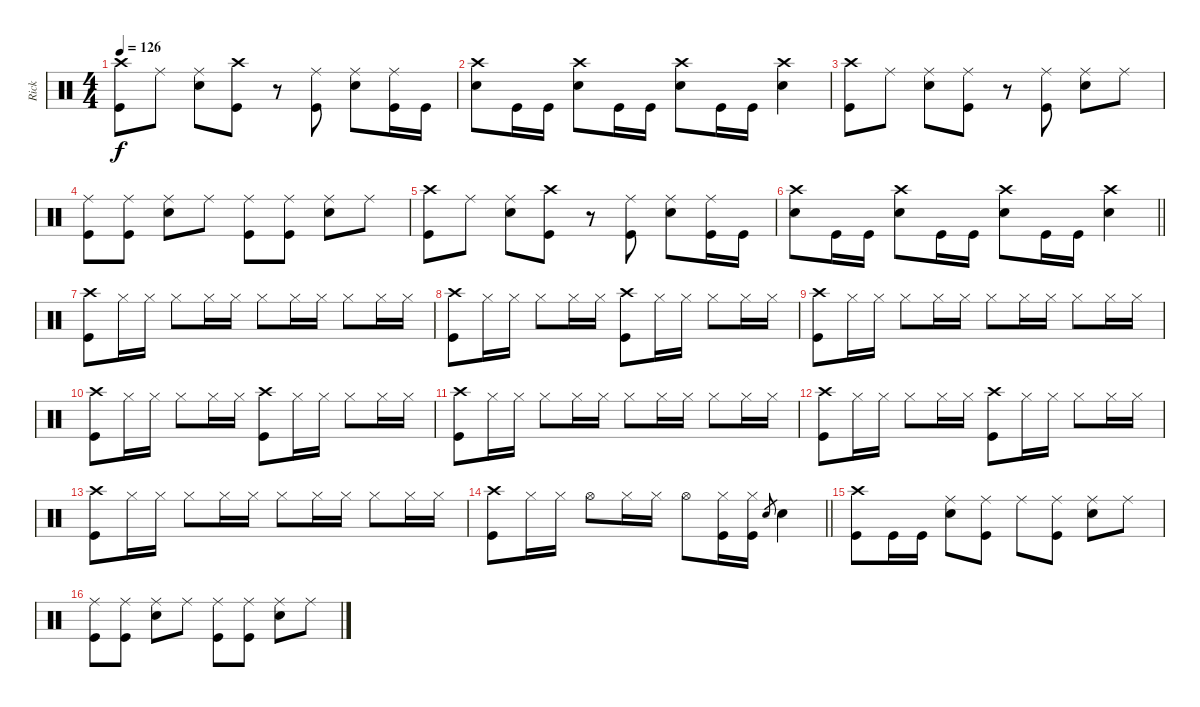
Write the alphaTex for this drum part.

\track ("Rick" "Rick") {instrument percussion}
\staff {score}
\articulation defaults
\ts (4 4)
\tempo 126
\clef neutral
\ks aminor
("Crash high (hit)" "Kick (hit)").8{dy f} "Ride (middle)".8 ("Ride (middle)" "Snare (hit) 2").8 ("Crash high (hit)" "Kick (hit)").8 r.8 ("Ride (middle)" "Kick (hit)").8 ("Ride (middle)" "Snare (hit) 2").8 ("Ride (middle)" "Kick (hit)").16 "Kick (hit)".16 |
("Crash high (hit)" "Snare (hit) 2").8 "Kick (hit)".16 "Kick (hit)".16 ("Crash high (hit)" "Snare (hit) 2").8 "Kick (hit)".16 "Kick (hit)".16 ("Crash high (hit)" "Snare (hit) 2").8 "Kick (hit)".16 "Kick (hit)".16 ("Crash high (hit)" "Snare (hit) 2").4 |
("Crash high (hit)" "Kick (hit)").8 "Ride (middle)".8 ("Ride (middle)" "Snare (hit) 2").8 ("Ride (middle)" "Kick (hit)").8 r.8 ("Ride (middle)" "Kick (hit)").8 ("Ride (middle)" "Snare (hit) 2").8 "Ride (middle)".8 |
("Ride (middle)" "Kick (hit)").8 ("Ride (middle)" "Kick (hit)").8 ("Ride (middle)" "Snare (hit) 2").8 "Ride (middle)".8 ("Ride (middle)" "Kick (hit)").8 ("Ride (middle)" "Kick (hit)").8 ("Ride (middle)" "Snare (hit) 2").8 "Ride (middle)".8 |
("Crash high (hit)" "Kick (hit)").8 "Ride (middle)".8 ("Ride (middle)" "Snare (hit) 2").8 ("Crash high (hit)" "Kick (hit)").8 r.8 ("Ride (middle)" "Kick (hit)").8 ("Ride (middle)" "Snare (hit) 2").8 ("Ride (middle)" "Kick (hit)").16 "Kick (hit)".16 |
\barLineRight lightlight
("Crash high (hit)" "Snare (hit) 2").8 "Kick (hit)".16 "Kick (hit)".16 ("Crash high (hit)" "Snare (hit) 2").8 "Kick (hit)".16 "Kick (hit)".16 ("Crash high (hit)" "Snare (hit) 2").8 "Kick (hit)".16 "Kick (hit)".16 ("Crash high (hit)" "Snare (hit) 2").4 |
("Crash high (hit)" "Kick (hit)").8 "Hi-Hat (closed)".16 "Hi-Hat (closed)".16 "Hi-Hat (closed)".8 "Hi-Hat (closed)".16 "Hi-Hat (closed)".16 "Hi-Hat (closed)".8 "Hi-Hat (closed)".16 "Hi-Hat (closed)".16 "Hi-Hat (closed)".8 "Hi-Hat (closed)".16 "Hi-Hat (closed)".16 |
("Crash high (hit)" "Kick (hit)").8 "Hi-Hat (closed)".16 "Hi-Hat (closed)".16 "Hi-Hat (closed)".8 "Hi-Hat (closed)".16 "Hi-Hat (closed)".16 ("Crash high (hit)" "Kick (hit)").8 "Hi-Hat (closed)".16 "Hi-Hat (closed)".16 "Hi-Hat (closed)".8 "Hi-Hat (closed)".16 "Hi-Hat (closed)".16 |
("Crash high (hit)" "Kick (hit)").8 "Hi-Hat (closed)".16 "Hi-Hat (closed)".16 "Hi-Hat (closed)".8 "Hi-Hat (closed)".16 "Hi-Hat (closed)".16 "Hi-Hat (closed)".8 "Hi-Hat (closed)".16 "Hi-Hat (closed)".16 "Hi-Hat (closed)".8 "Hi-Hat (closed)".16 "Hi-Hat (closed)".16 |
("Crash high (hit)" "Kick (hit)").8 "Hi-Hat (closed)".16 "Hi-Hat (closed)".16 "Hi-Hat (closed)".8 "Hi-Hat (closed)".16 "Hi-Hat (closed)".16 ("Crash high (hit)" "Kick (hit)").8 "Hi-Hat (closed)".16 "Hi-Hat (closed)".16 "Hi-Hat (closed)".8 "Hi-Hat (closed)".16 "Hi-Hat (closed)".16 |
("Crash high (hit)" "Kick (hit)").8 "Hi-Hat (closed)".16 "Hi-Hat (closed)".16 "Hi-Hat (closed)".8 "Hi-Hat (closed)".16 "Hi-Hat (closed)".16 "Hi-Hat (closed)".8 "Hi-Hat (closed)".16 "Hi-Hat (closed)".16 "Hi-Hat (closed)".8 "Hi-Hat (closed)".16 "Hi-Hat (closed)".16 |
("Crash high (hit)" "Kick (hit)").8 "Hi-Hat (closed)".16 "Hi-Hat (closed)".16 "Hi-Hat (closed)".8 "Hi-Hat (closed)".16 "Hi-Hat (closed)".16 ("Crash high (hit)" "Kick (hit)").8 "Hi-Hat (closed)".16 "Hi-Hat (closed)".16 "Hi-Hat (closed)".8 "Hi-Hat (closed)".16 "Hi-Hat (closed)".16 |
("Crash high (hit)" "Kick (hit)").8 "Hi-Hat (closed)".16 "Hi-Hat (closed)".16 "Hi-Hat (closed)".8 "Hi-Hat (closed)".16 "Hi-Hat (closed)".16 "Hi-Hat (closed)".8 "Hi-Hat (closed)".16 "Hi-Hat (closed)".16 "Hi-Hat (closed)".8 "Hi-Hat (closed)".16 "Hi-Hat (closed)".16 |
\barLineRight lightlight
("Crash high (hit)" "Kick (hit)").8 "Hi-Hat (closed)".16 "Hi-Hat (closed)".16 "Hi-Hat (open)".8 "Hi-Hat (closed)".16 "Hi-Hat (closed)".16 "Hi-Hat (open)".8 ("Hi-Hat (closed)" "Kick (hit)").16 ("Hi-Hat (closed)" "Kick (hit)").16 "Snare (hit) 2".8{gr} "Snare (hit) 2".4 |
("Crash high (hit)" "Kick (hit)").8 "Kick (hit)".16 "Kick (hit)".16 ("Ride (middle)" "Snare (hit) 2").8 ("Ride (middle)" "Kick (hit)").8 "Ride (middle)".8 ("Ride (middle)" "Kick (hit)").8 ("Ride (middle)" "Snare (hit) 2").8 "Ride (middle)".8 |
("Ride (middle)" "Kick (hit)").8 ("Ride (middle)" "Kick (hit)").8 ("Ride (middle)" "Snare (hit) 2").8 "Ride (middle)".8 ("Ride (middle)" "Kick (hit)").8 ("Ride (middle)" "Kick (hit)").8 ("Ride (middle)" "Snare (hit) 2").8 "Ride (middle)".8
